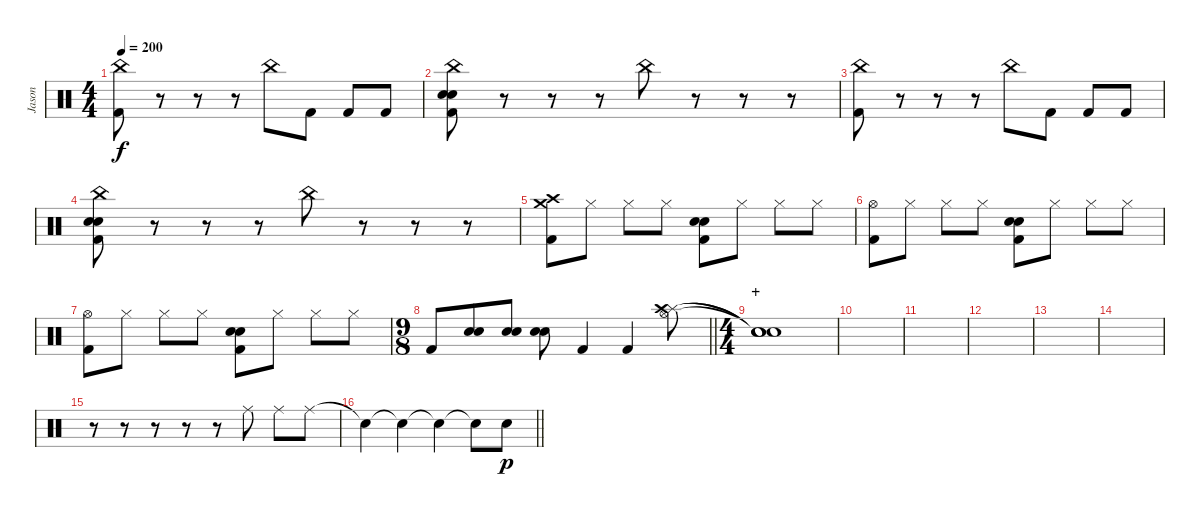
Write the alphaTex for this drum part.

\track ("Jason" "Jason") {instrument percussion}
\staff {score}
\articulation defaults
\ts (4 4)
\tempo 200
\clef neutral
\ks c
("China (hit)" "Kick (hit) 2").8{dy f} r.8 r.8 r.8 "China (hit)".8 "Kick (hit) 2".8 "Kick (hit) 2".8 "Kick (hit) 2".8 |
("China (hit)" "Electric Snare (hit)" "Snare (hit) 2" "Kick (hit) 2").8 r.8 r.8 r.8 "China (hit)".8 r.8 r.8 r.8 |
("China (hit)" "Kick (hit) 2").8 r.8 r.8 r.8 "China (hit)".8 "Kick (hit) 2".8 "Kick (hit) 2".8 "Kick (hit) 2".8 |
("China (hit)" "Electric Snare (hit)" "Snare (hit) 2" "Kick (hit) 2").8 r.8 r.8 r.8 "China (hit)".8 r.8 r.8 r.8 |
("Crash medium (hit)" "Crash high (hit)" "Kick (hit) 2").8 "Hi-Hat (closed)".8 "Hi-Hat (closed)".8 "Hi-Hat (closed)".8 ("Electric Snare (hit)" "Snare (hit) 2" "Kick (hit) 2").8 "Hi-Hat (closed)".8 "Hi-Hat (closed)".8 "Hi-Hat (closed)".8 |
("Hi-Hat (open)" "Kick (hit) 2").8 "Hi-Hat (closed)".8 "Hi-Hat (closed)".8 "Hi-Hat (closed)".8 ("Electric Snare (hit)" "Snare (hit) 2" "Kick (hit) 2").8 "Hi-Hat (closed)".8 "Hi-Hat (closed)".8 "Hi-Hat (closed)".8 |
("Hi-Hat (open)" "Kick (hit) 2").8 "Hi-Hat (closed)".8 "Hi-Hat (closed)".8 "Hi-Hat (closed)".8 ("Electric Snare (hit)" "Snare (hit) 2" "Kick (hit) 2").8 "Hi-Hat (closed)".8 "Hi-Hat (closed)".8 "Hi-Hat (closed)".8 |
\ts (9 8)
\barLineRight lightlight "Kick (hit) 2".8
("Electric Snare (hit)" "Snare (hit) 2").8 ("Electric Snare (hit)" "Snare (hit) 2").8 ("Electric Snare (hit)" "Snare (hit) 2").8 "Kick (hit) 2".4 "Kick (hit) 2".4 ("Splash (hit)" "Crash high (hit)" "Hi-Hat (open)").8 |
\ts (4 4)
\section ("" "+")
("Snare (hit)"{t} "Snare (hit)"{t} "Snare (hit)"{t}).1 |
|
|
|
|
|
r.8 r.8 r.8 r.8 r.8 "Ride (middle)".8 "Ride (middle)".8 "Ride (middle)".8 |
\barLineRight lightlight "Snare (hit)"{t}.4 "Snare (hit)"{t}.4 "Snare (hit)"{t}.4 "Snare (hit)"{t}.8 "Electric Snare (hit)".8{dy p}
